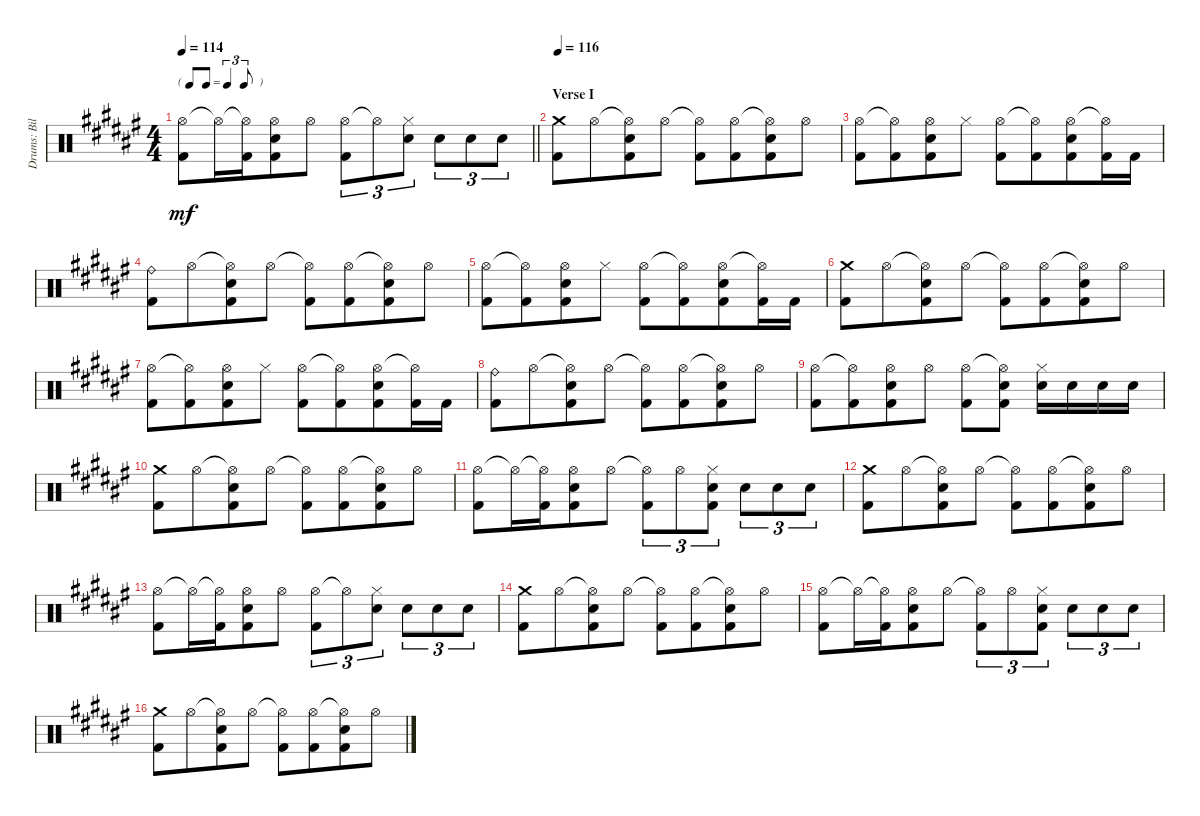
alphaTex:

\track ("Drums: Bill" "Drums: Bil") {instrument percussion}
\staff {score}
\articulation defaults
\ts (4 4)
\tf triplet8th
\tempo 114
\clef neutral
\barLineRight lightlight
\ks f#
("Hi-Hat (open)" "Kick (hit) 2").8{dy mf} "Hi-Hat (open)"{t}.16 ("Hi-Hat (open)"{t} "Kick (hit) 2").16{beam merge} ("Hi-Hat (open)" "Snare (hit) 2" "Kick (hit) 2").8 "Hi-Hat (open)".8 ("Hi-Hat (open)" "Kick (hit) 2").8{tu (3 2)} "Hi-Hat (open)"{t}.8{tu (3 2)} ("Hi-Hat (closed)" "Electric Snare (hit)").8{tu (3 2)} "Electric Snare (hit)".8{tu (3 2)} "Electric Snare (hit)".8{tu (3 2)} "Electric Snare (hit)".8{tu (3 2)} |
\section ("" "Verse I")
\tempo 116
("Crash medium (hit)" "Kick (hit) 2").8 "Hi-Hat (open)".8{beam merge} ("Hi-Hat (open)"{t} "Electric Snare (hit)" "Kick (hit) 2").8 "Hi-Hat (open)".8 ("Hi-Hat (open)"{t} "Kick (hit) 2").8 ("Hi-Hat (open)" "Kick (hit) 2").8{beam merge} ("Hi-Hat (open)"{t} "Electric Snare (hit)" "Kick (hit) 2").8 "Hi-Hat (open)".8 |
("Hi-Hat (open)" "Kick (hit) 2").8 ("Hi-Hat (open)"{t} "Kick (hit) 2").8{beam merge} ("Hi-Hat (open)" "Snare (hit) 2" "Kick (hit) 2").8 "Hi-Hat (closed)".8 ("Hi-Hat (open)" "Kick (hit) 2").8 ("Hi-Hat (open)"{t} "Kick (hit) 2").8{beam merge} ("Hi-Hat (open)" "Electric Snare (hit)" "Kick (hit) 2").8 ("Hi-Hat (open)"{t} "Kick (hit) 2").16 "Kick (hit) 2".16 |
("Ride (bell)" "Kick (hit) 2").8 "Hi-Hat (open)".8{beam merge} ("Hi-Hat (open)"{t} "Electric Snare (hit)" "Kick (hit) 2").8 "Hi-Hat (open)".8 ("Hi-Hat (open)"{t} "Kick (hit) 2").8 ("Hi-Hat (open)" "Kick (hit) 2").8{beam merge} ("Hi-Hat (open)"{t} "Electric Snare (hit)" "Kick (hit) 2").8 "Hi-Hat (open)".8 |
("Hi-Hat (open)" "Kick (hit) 2").8 ("Hi-Hat (open)"{t} "Kick (hit) 2").8{beam merge} ("Hi-Hat (open)" "Snare (hit) 2" "Kick (hit) 2").8 "Hi-Hat (closed)".8 ("Hi-Hat (open)" "Kick (hit) 2").8 ("Hi-Hat (open)"{t} "Kick (hit) 2").8{beam merge} ("Hi-Hat (open)" "Electric Snare (hit)" "Kick (hit) 2").8 ("Hi-Hat (open)"{t} "Kick (hit) 2").16 "Kick (hit) 2".16 |
("Crash medium (hit)" "Kick (hit) 2").8 "Hi-Hat (open)".8{beam merge} ("Hi-Hat (open)"{t} "Electric Snare (hit)" "Kick (hit) 2").8 "Hi-Hat (open)".8 ("Hi-Hat (open)"{t} "Kick (hit) 2").8 ("Hi-Hat (open)" "Kick (hit) 2").8{beam merge} ("Hi-Hat (open)"{t} "Electric Snare (hit)" "Kick (hit) 2").8 "Hi-Hat (open)".8 |
("Hi-Hat (open)" "Kick (hit) 2").8 ("Hi-Hat (open)"{t} "Kick (hit) 2").8{beam merge} ("Hi-Hat (open)" "Snare (hit) 2" "Kick (hit) 2").8 "Hi-Hat (closed)".8 ("Hi-Hat (open)" "Kick (hit) 2").8 ("Hi-Hat (open)"{t} "Kick (hit) 2").8{beam merge} ("Hi-Hat (open)" "Electric Snare (hit)" "Kick (hit) 2").8 ("Hi-Hat (open)"{t} "Kick (hit) 2").16 "Kick (hit) 2".16 |
("Ride (bell)" "Kick (hit) 2").8 "Hi-Hat (open)".8{beam merge} ("Hi-Hat (open)"{t} "Electric Snare (hit)" "Kick (hit) 2").8 "Hi-Hat (open)".8 ("Hi-Hat (open)"{t} "Kick (hit) 2").8 ("Hi-Hat (open)" "Kick (hit) 2").8{beam merge} ("Hi-Hat (open)"{t} "Electric Snare (hit)" "Kick (hit) 2").8 "Hi-Hat (open)".8 |
("Hi-Hat (open)" "Kick (hit) 2").8 ("Hi-Hat (open)"{t} "Kick (hit) 2").8{beam merge} ("Hi-Hat (open)" "Electric Snare (hit)" "Kick (hit) 2").8 "Hi-Hat (open)".8 ("Hi-Hat (open)" "Kick (hit) 2").8 ("Hi-Hat (open)"{t} "Electric Snare (hit)" "Kick (hit) 2").8 ("Hi-Hat (closed)" "Electric Snare (hit)").16 "Electric Snare (hit)".16 "Electric Snare (hit)".16 "Electric Snare (hit)".16 |
("Crash medium (hit)" "Kick (hit) 2").8 "Hi-Hat (open)".8{beam merge} ("Hi-Hat (open)"{t} "Electric Snare (hit)" "Kick (hit) 2").8 "Hi-Hat (open)".8 ("Hi-Hat (open)"{t} "Kick (hit) 2").8 ("Hi-Hat (open)" "Kick (hit) 2").8{beam merge} ("Hi-Hat (open)"{t} "Electric Snare (hit)" "Kick (hit) 2").8 "Hi-Hat (open)".8 |
("Hi-Hat (open)" "Kick (hit) 2").8 "Hi-Hat (open)"{t}.16 ("Hi-Hat (open)"{t} "Kick (hit) 2").16{beam merge} ("Hi-Hat (open)" "Snare (hit) 2" "Kick (hit) 2").8 "Hi-Hat (open)".8 ("Hi-Hat (open)"{t} "Kick (hit) 2").8{tu (3 2)} "Hi-Hat (open)".8{tu (3 2)} ("Hi-Hat (closed)" "Electric Snare (hit)" "Kick (hit) 2").8{tu (3 2)} "Electric Snare (hit)".8{tu (3 2)} "Electric Snare (hit)".8{tu (3 2)} "Electric Snare (hit)".8{tu (3 2)} |
("Crash medium (hit)" "Kick (hit) 2").8 "Hi-Hat (open)".8{beam merge} ("Hi-Hat (open)"{t} "Electric Snare (hit)" "Kick (hit) 2").8 "Hi-Hat (open)".8 ("Hi-Hat (open)"{t} "Kick (hit) 2").8 ("Hi-Hat (open)" "Kick (hit) 2").8{beam merge} ("Hi-Hat (open)"{t} "Electric Snare (hit)" "Kick (hit) 2").8 "Hi-Hat (open)".8 |
("Hi-Hat (open)" "Kick (hit) 2").8 "Hi-Hat (open)"{t}.16 ("Hi-Hat (open)"{t} "Kick (hit) 2").16{beam merge} ("Hi-Hat (open)" "Snare (hit) 2" "Kick (hit) 2").8 "Hi-Hat (open)".8 ("Hi-Hat (open)" "Kick (hit) 2").8{tu (3 2)} "Hi-Hat (open)"{t}.8{tu (3 2)} ("Hi-Hat (closed)" "Electric Snare (hit)").8{tu (3 2)} "Electric Snare (hit)".8{tu (3 2)} "Electric Snare (hit)".8{tu (3 2)} "Electric Snare (hit)".8{tu (3 2)} |
("Crash medium (hit)" "Kick (hit) 2").8 "Hi-Hat (open)".8{beam merge} ("Hi-Hat (open)"{t} "Electric Snare (hit)" "Kick (hit) 2").8 "Hi-Hat (open)".8 ("Hi-Hat (open)"{t} "Kick (hit) 2").8 ("Hi-Hat (open)" "Kick (hit) 2").8{beam merge} ("Hi-Hat (open)"{t} "Electric Snare (hit)" "Kick (hit) 2").8 "Hi-Hat (open)".8 |
("Hi-Hat (open)" "Kick (hit) 2").8 "Hi-Hat (open)"{t}.16 ("Hi-Hat (open)"{t} "Kick (hit) 2").16{beam merge} ("Hi-Hat (open)" "Snare (hit) 2" "Kick (hit) 2").8 "Hi-Hat (open)".8 ("Hi-Hat (open)"{t} "Kick (hit) 2").8{tu (3 2)} "Hi-Hat (open)".8{tu (3 2)} ("Hi-Hat (closed)" "Electric Snare (hit)" "Kick (hit) 2").8{tu (3 2)} "Electric Snare (hit)".8{tu (3 2)} "Electric Snare (hit)".8{tu (3 2)} "Electric Snare (hit)".8{tu (3 2)} |
("Crash medium (hit)" "Kick (hit) 2").8 "Hi-Hat (open)".8{beam merge} ("Hi-Hat (open)"{t} "Electric Snare (hit)" "Kick (hit) 2").8 "Hi-Hat (open)".8 ("Hi-Hat (open)"{t} "Kick (hit) 2").8 ("Hi-Hat (open)" "Kick (hit) 2").8{beam merge} ("Hi-Hat (open)"{t} "Electric Snare (hit)" "Kick (hit) 2").8 "Hi-Hat (open)".8
